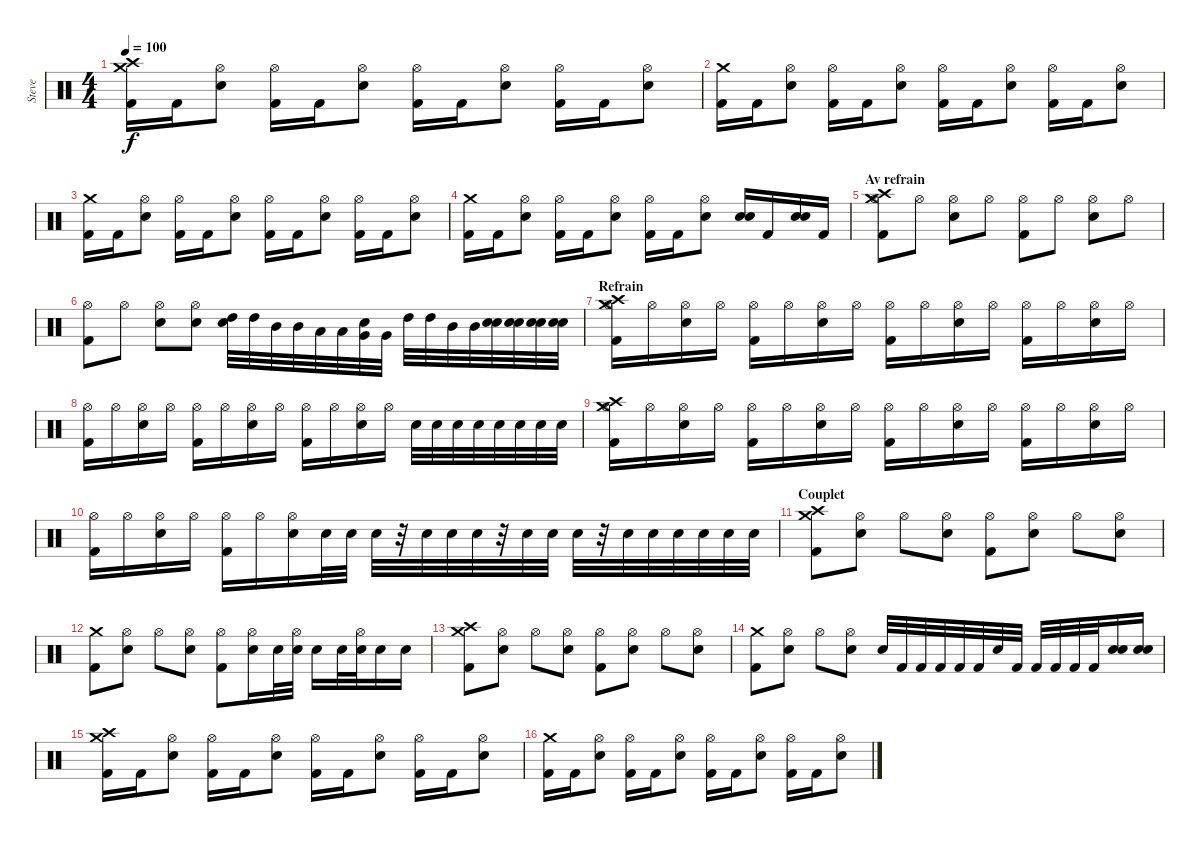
\track ("Steve" "Steve") {instrument percussion}
\staff {score}
\articulation defaults
\ts (4 4)
\tempo 100
\clef neutral
\ks c
("Crash medium (hit)" "Crash high (hit)" "Kick (hit) 2").16{dy f} "Kick (hit) 2".16 ("Hi-Hat (open)" "Electric Snare (hit)").8 ("Hi-Hat (open)" "Kick (hit) 2").16 "Kick (hit) 2".16 ("Hi-Hat (open)" "Electric Snare (hit)").8 ("Hi-Hat (open)" "Kick (hit) 2").16 "Kick (hit) 2".16 ("Hi-Hat (open)" "Electric Snare (hit)").8 ("Hi-Hat (open)" "Kick (hit) 2").16 "Kick (hit) 2".16 ("Hi-Hat (open)" "Electric Snare (hit)").8 |
("Crash medium (hit)" "Kick (hit) 2").16 "Kick (hit) 2".16 ("Hi-Hat (open)" "Electric Snare (hit)").8 ("Hi-Hat (open)" "Kick (hit) 2").16 "Kick (hit) 2".16 ("Hi-Hat (open)" "Electric Snare (hit)").8 ("Hi-Hat (open)" "Kick (hit) 2").16 "Kick (hit) 2".16 ("Hi-Hat (open)" "Electric Snare (hit)").8 ("Hi-Hat (open)" "Kick (hit) 2").16 "Kick (hit) 2".16 ("Hi-Hat (open)" "Electric Snare (hit)").8 |
("Crash medium (hit)" "Kick (hit) 2").16 "Kick (hit) 2".16 ("Hi-Hat (open)" "Electric Snare (hit)").8 ("Hi-Hat (open)" "Kick (hit) 2").16 "Kick (hit) 2".16 ("Hi-Hat (open)" "Electric Snare (hit)").8 ("Hi-Hat (open)" "Kick (hit) 2").16 "Kick (hit) 2".16 ("Hi-Hat (open)" "Electric Snare (hit)").8 ("Hi-Hat (open)" "Kick (hit) 2").16 "Kick (hit) 2".16 ("Hi-Hat (open)" "Electric Snare (hit)").8 |
("Crash medium (hit)" "Kick (hit) 2").16 "Kick (hit) 2".16 ("Hi-Hat (open)" "Electric Snare (hit)").8 ("Hi-Hat (open)" "Kick (hit) 2").16 "Kick (hit) 2".16 ("Hi-Hat (open)" "Electric Snare (hit)").8 ("Hi-Hat (open)" "Kick (hit) 2").16 "Kick (hit) 2".16 ("Hi-Hat (open)" "Electric Snare (hit)").8 ("Electric Snare (hit)" "Electric Snare (hit)").16 "Kick (hit) 2".16 ("Electric Snare (hit)" "Electric Snare (hit)").16 "Kick (hit) 2".16 |
\section ("" "Av refrain")
("Crash medium (hit)" "Crash high (hit)" "Hi-Hat (open)" "Kick (hit) 2").8 "Hi-Hat (open)".8 ("Hi-Hat (open)" "Electric Snare (hit)").8 "Hi-Hat (open)".8 ("Hi-Hat (open)" "Kick (hit) 2").8 "Hi-Hat (open)".8 ("Hi-Hat (open)" "Electric Snare (hit)").8 "Hi-Hat (open)".8 |
("Hi-Hat (open)" "Kick (hit) 2").8 "Hi-Hat (open)".8 ("Hi-Hat (open)" "Electric Snare (hit)").8 ("Hi-Hat (open)" "Electric Snare (hit)").8 ("Electric Snare (hit)" "High Tom (hit)").32 "High Tom (hit)".32 "Mid Tom (hit)".32 "Mid Tom (hit)".32 "Low Tom (hit)".32 "Low Tom (hit)".32 ("Electric Snare (hit)" "Very Low Tom (hit)").32 "Very Low Tom (hit)".32 "High Tom (hit)".32 "High Tom (hit)".32 "Mid Tom (hit)".32 "Mid Tom (hit)".32 ("Electric Snare (hit)" "Electric Snare (hit)").32 ("Electric Snare (hit)" "Electric Snare (hit)").32 ("Electric Snare (hit)" "Electric Snare (hit)").32 ("Electric Snare (hit)" "Electric Snare (hit)").32 |
\section ("" "Refrain")
("Crash medium (hit)" "Crash high (hit)" "Hi-Hat (open)" "Kick (hit) 2").16 "Hi-Hat (open)".16 ("Hi-Hat (open)" "Electric Snare (hit)").16 "Hi-Hat (open)".16 ("Hi-Hat (open)" "Kick (hit) 2").16 "Hi-Hat (open)".16 ("Hi-Hat (open)" "Electric Snare (hit)").16 "Hi-Hat (open)".16 ("Hi-Hat (open)" "Kick (hit) 2").16 "Hi-Hat (open)".16 ("Hi-Hat (open)" "Electric Snare (hit)").16 "Hi-Hat (open)".16 ("Hi-Hat (open)" "Kick (hit) 2").16 "Hi-Hat (open)".16 ("Hi-Hat (open)" "Electric Snare (hit)").16 "Hi-Hat (open)".16 |
("Hi-Hat (open)" "Kick (hit) 2").16 "Hi-Hat (open)".16 ("Hi-Hat (open)" "Electric Snare (hit)").16 "Hi-Hat (open)".16 ("Hi-Hat (open)" "Kick (hit) 2").16 "Hi-Hat (open)".16 ("Hi-Hat (open)" "Electric Snare (hit)").16 "Hi-Hat (open)".16 ("Hi-Hat (open)" "Kick (hit) 2").16 "Hi-Hat (open)".16 ("Hi-Hat (open)" "Electric Snare (hit)").16 "Hi-Hat (open)".16 "Electric Snare (hit)".32 "Electric Snare (hit)".32 "Electric Snare (hit)".32 "Electric Snare (hit)".32 "Electric Snare (hit)".32 "Electric Snare (hit)".32 "Electric Snare (hit)".32 "Electric Snare (hit)".32 |
("Crash medium (hit)" "Crash high (hit)" "Hi-Hat (open)" "Kick (hit) 2").16 "Hi-Hat (open)".16 ("Hi-Hat (open)" "Electric Snare (hit)").16 "Hi-Hat (open)".16 ("Hi-Hat (open)" "Kick (hit) 2").16 "Hi-Hat (open)".16 ("Hi-Hat (open)" "Electric Snare (hit)").16 "Hi-Hat (open)".16 ("Hi-Hat (open)" "Kick (hit) 2").16 "Hi-Hat (open)".16 ("Hi-Hat (open)" "Electric Snare (hit)").16 "Hi-Hat (open)".16 ("Hi-Hat (open)" "Kick (hit) 2").16 "Hi-Hat (open)".16 ("Hi-Hat (open)" "Electric Snare (hit)").16 "Hi-Hat (open)".16 |
("Hi-Hat (open)" "Kick (hit) 2").16 "Hi-Hat (open)".16 ("Hi-Hat (open)" "Electric Snare (hit)").16 "Hi-Hat (open)".16 ("Hi-Hat (open)" "Kick (hit) 2").16 "Hi-Hat (open)".16 ("Hi-Hat (open)" "Electric Snare (hit)").16 "Electric Snare (hit)".32 "Electric Snare (hit)".32 "Electric Snare (hit)".32 r.32 "Electric Snare (hit)".32 "Electric Snare (hit)".32 "Electric Snare (hit)".32 r.32 "Electric Snare (hit)".32 "Electric Snare (hit)".32 "Electric Snare (hit)".32 r.32 "Electric Snare (hit)".32 "Electric Snare (hit)".32 "Electric Snare (hit)".32 "Electric Snare (hit)".32 "Electric Snare (hit)".32 "Electric Snare (hit)".32 |
\section ("" "Couplet")
("Crash medium (hit)" "Crash high (hit)" "Kick (hit) 2").8 ("Hi-Hat (open)" "Electric Snare (hit)").8 "Hi-Hat (open)".8 ("Hi-Hat (open)" "Electric Snare (hit)").8 ("Hi-Hat (open)" "Kick (hit) 2").8 ("Hi-Hat (open)" "Electric Snare (hit)").8 "Hi-Hat (open)".8 ("Hi-Hat (open)" "Electric Snare (hit)").8 |
("Crash medium (hit)" "Kick (hit) 2").8 ("Hi-Hat (open)" "Electric Snare (hit)").8 "Hi-Hat (open)".8 ("Hi-Hat (open)" "Electric Snare (hit)").8 ("Hi-Hat (open)" "Kick (hit) 2").8 ("Hi-Hat (open)" "Electric Snare (hit)").16 "Electric Snare (hit)".32 ("Hi-Hat (open)" "Electric Snare (hit)").32 "Electric Snare (hit)".16 "Electric Snare (hit)".32 ("Hi-Hat (open)" "Electric Snare (hit)").32 "Electric Snare (hit)".16 "Electric Snare (hit)".16 |
("Crash medium (hit)" "Crash high (hit)" "Kick (hit) 2").8 ("Hi-Hat (open)" "Electric Snare (hit)").8 "Hi-Hat (open)".8 ("Hi-Hat (open)" "Electric Snare (hit)").8 ("Hi-Hat (open)" "Kick (hit) 2").8 ("Hi-Hat (open)" "Electric Snare (hit)").8 "Hi-Hat (open)".8 ("Hi-Hat (open)" "Electric Snare (hit)").8 |
("Crash medium (hit)" "Kick (hit) 2").8 ("Hi-Hat (open)" "Electric Snare (hit)").8 "Hi-Hat (open)".8 ("Hi-Hat (open)" "Electric Snare (hit)").8 "Electric Snare (hit)".32 "Kick (hit) 2".32 "Kick (hit) 2".32 "Kick (hit) 2".32 "Kick (hit) 2".32 "Kick (hit) 2".32 "Electric Snare (hit)".32 "Kick (hit) 2".32 "Kick (hit) 2".32 "Kick (hit) 2".32 "Kick (hit) 2".32 "Kick (hit) 2".32 ("Electric Snare (hit)" "Electric Snare (hit)").16 ("Electric Snare (hit)" "Electric Snare (hit)").16 |
("Crash medium (hit)" "Crash high (hit)" "Kick (hit) 2").16 "Kick (hit) 2".16 ("Hi-Hat (open)" "Electric Snare (hit)").8 ("Hi-Hat (open)" "Kick (hit) 2").16 "Kick (hit) 2".16 ("Hi-Hat (open)" "Electric Snare (hit)").8 ("Hi-Hat (open)" "Kick (hit) 2").16 "Kick (hit) 2".16 ("Hi-Hat (open)" "Electric Snare (hit)").8 ("Hi-Hat (open)" "Kick (hit) 2").16 "Kick (hit) 2".16 ("Hi-Hat (open)" "Electric Snare (hit)").8 |
("Crash medium (hit)" "Kick (hit) 2").16 "Kick (hit) 2".16 ("Hi-Hat (open)" "Electric Snare (hit)").8 ("Hi-Hat (open)" "Kick (hit) 2").16 "Kick (hit) 2".16 ("Hi-Hat (open)" "Electric Snare (hit)").8 ("Hi-Hat (open)" "Kick (hit) 2").16 "Kick (hit) 2".16 ("Hi-Hat (open)" "Electric Snare (hit)").8 ("Hi-Hat (open)" "Kick (hit) 2").16 "Kick (hit) 2".16 ("Hi-Hat (open)" "Electric Snare (hit)").8
